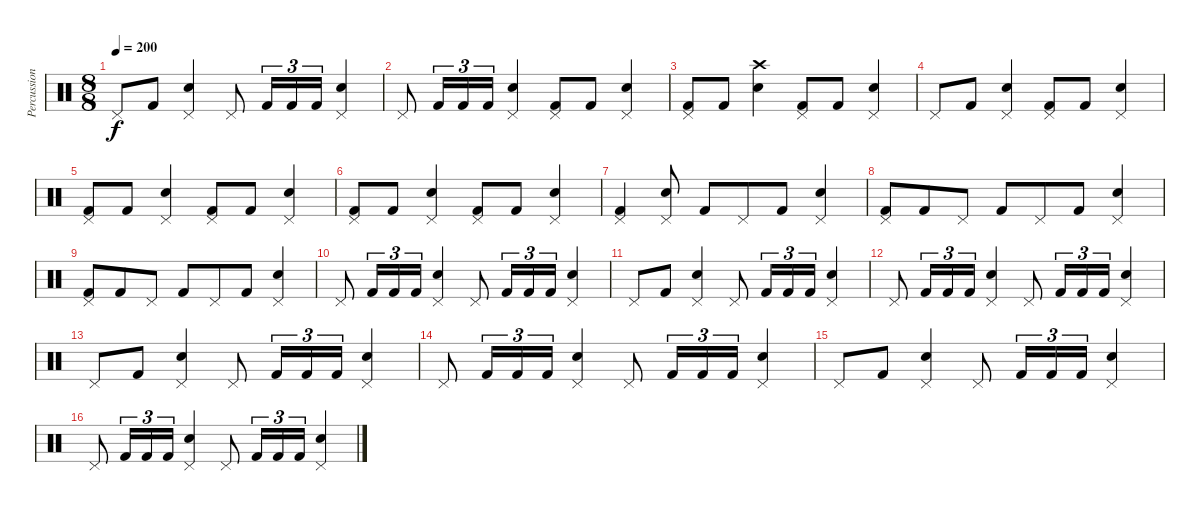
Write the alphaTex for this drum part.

\track ("Percussions" "Percussion") {instrument percussion}
\staff {score}
\articulation defaults
\ts (8 8)
\tempo 200
\clef neutral
\ks c "Pedal Hi-Hat (hit)".8{dy f} "Kick (hit) 2".8
("Pedal Hi-Hat (hit)" "Snare (hit) 2").4 "Pedal Hi-Hat (hit)".8 "Kick (hit) 2".16{tu (3 2)} "Kick (hit) 2".16{tu (3 2)} "Kick (hit) 2".16{tu (3 2)} ("Pedal Hi-Hat (hit)" "Snare (hit) 2").4 |
"Pedal Hi-Hat (hit)".8 "Kick (hit) 2".16{tu (3 2)} "Kick (hit) 2".16{tu (3 2)} "Kick (hit) 2".16{tu (3 2)} ("Pedal Hi-Hat (hit)" "Snare (hit) 2").4 ("Pedal Hi-Hat (hit)" "Kick (hit) 2").8 "Kick (hit) 2".8 ("Pedal Hi-Hat (hit)" "Snare (hit) 2").4 |
("Pedal Hi-Hat (hit)" "Kick (hit) 2").8 "Kick (hit) 2".8 ("Crash high (hit)" "Snare (hit) 2").4 ("Pedal Hi-Hat (hit)" "Kick (hit) 2").8 "Kick (hit) 2".8 ("Pedal Hi-Hat (hit)" "Snare (hit) 2").4 |
"Pedal Hi-Hat (hit)".8 "Kick (hit) 2".8 ("Pedal Hi-Hat (hit)" "Snare (hit) 2").4 ("Pedal Hi-Hat (hit)" "Kick (hit) 2").8 "Kick (hit) 2".8 ("Pedal Hi-Hat (hit)" "Snare (hit) 2").4 |
("Pedal Hi-Hat (hit)" "Kick (hit) 2").8 "Kick (hit) 2".8 ("Pedal Hi-Hat (hit)" "Snare (hit) 2").4 ("Pedal Hi-Hat (hit)" "Kick (hit) 2").8 "Kick (hit) 2".8 ("Pedal Hi-Hat (hit)" "Snare (hit) 2").4 |
("Pedal Hi-Hat (hit)" "Kick (hit) 2").8 "Kick (hit) 2".8 ("Pedal Hi-Hat (hit)" "Snare (hit) 2").4 ("Pedal Hi-Hat (hit)" "Kick (hit) 2").8 "Kick (hit) 2".8 ("Pedal Hi-Hat (hit)" "Snare (hit) 2").4 |
("Pedal Hi-Hat (hit)" "Kick (hit) 2").4 ("Pedal Hi-Hat (hit)" "Snare (hit) 2").8 "Kick (hit) 2".8 "Pedal Hi-Hat (hit)".8 "Kick (hit) 2".8 ("Pedal Hi-Hat (hit)" "Snare (hit) 2").4 |
("Pedal Hi-Hat (hit)" "Kick (hit) 2").8 "Kick (hit) 2".8 "Pedal Hi-Hat (hit)".8 "Kick (hit) 2".8 "Pedal Hi-Hat (hit)".8 "Kick (hit) 2".8 ("Pedal Hi-Hat (hit)" "Snare (hit) 2").4 |
("Pedal Hi-Hat (hit)" "Kick (hit) 2").8 "Kick (hit) 2".8 "Pedal Hi-Hat (hit)".8 "Kick (hit) 2".8 "Pedal Hi-Hat (hit)".8 "Kick (hit) 2".8 ("Pedal Hi-Hat (hit)" "Snare (hit) 2").4 |
"Pedal Hi-Hat (hit)".8 "Kick (hit) 2".16{tu (3 2)} "Kick (hit) 2".16{tu (3 2)} "Kick (hit) 2".16{tu (3 2)} ("Pedal Hi-Hat (hit)" "Snare (hit) 2").4 "Pedal Hi-Hat (hit)".8 "Kick (hit) 2".16{tu (3 2)} "Kick (hit) 2".16{tu (3 2)} "Kick (hit) 2".16{tu (3 2)} ("Pedal Hi-Hat (hit)" "Snare (hit) 2").4 |
"Pedal Hi-Hat (hit)".8 "Kick (hit) 2".8 ("Pedal Hi-Hat (hit)" "Snare (hit) 2").4 "Pedal Hi-Hat (hit)".8 "Kick (hit) 2".16{tu (3 2)} "Kick (hit) 2".16{tu (3 2)} "Kick (hit) 2".16{tu (3 2)} ("Pedal Hi-Hat (hit)" "Snare (hit) 2").4 |
"Pedal Hi-Hat (hit)".8 "Kick (hit) 2".16{tu (3 2)} "Kick (hit) 2".16{tu (3 2)} "Kick (hit) 2".16{tu (3 2)} ("Pedal Hi-Hat (hit)" "Snare (hit) 2").4 "Pedal Hi-Hat (hit)".8 "Kick (hit) 2".16{tu (3 2)} "Kick (hit) 2".16{tu (3 2)} "Kick (hit) 2".16{tu (3 2)} ("Pedal Hi-Hat (hit)" "Snare (hit) 2").4 |
"Pedal Hi-Hat (hit)".8 "Kick (hit) 2".8 ("Pedal Hi-Hat (hit)" "Snare (hit) 2").4 "Pedal Hi-Hat (hit)".8 "Kick (hit) 2".16{tu (3 2)} "Kick (hit) 2".16{tu (3 2)} "Kick (hit) 2".16{tu (3 2)} ("Pedal Hi-Hat (hit)" "Snare (hit) 2").4 |
"Pedal Hi-Hat (hit)".8 "Kick (hit) 2".16{tu (3 2)} "Kick (hit) 2".16{tu (3 2)} "Kick (hit) 2".16{tu (3 2)} ("Pedal Hi-Hat (hit)" "Snare (hit) 2").4 "Pedal Hi-Hat (hit)".8 "Kick (hit) 2".16{tu (3 2)} "Kick (hit) 2".16{tu (3 2)} "Kick (hit) 2".16{tu (3 2)} ("Pedal Hi-Hat (hit)" "Snare (hit) 2").4 |
"Pedal Hi-Hat (hit)".8 "Kick (hit) 2".8 ("Pedal Hi-Hat (hit)" "Snare (hit) 2").4 "Pedal Hi-Hat (hit)".8 "Kick (hit) 2".16{tu (3 2)} "Kick (hit) 2".16{tu (3 2)} "Kick (hit) 2".16{tu (3 2)} ("Pedal Hi-Hat (hit)" "Snare (hit) 2").4 |
"Pedal Hi-Hat (hit)".8 "Kick (hit) 2".16{tu (3 2)} "Kick (hit) 2".16{tu (3 2)} "Kick (hit) 2".16{tu (3 2)} ("Pedal Hi-Hat (hit)" "Snare (hit) 2").4 "Pedal Hi-Hat (hit)".8 "Kick (hit) 2".16{tu (3 2)} "Kick (hit) 2".16{tu (3 2)} "Kick (hit) 2".16{tu (3 2)} ("Pedal Hi-Hat (hit)" "Snare (hit) 2").4
